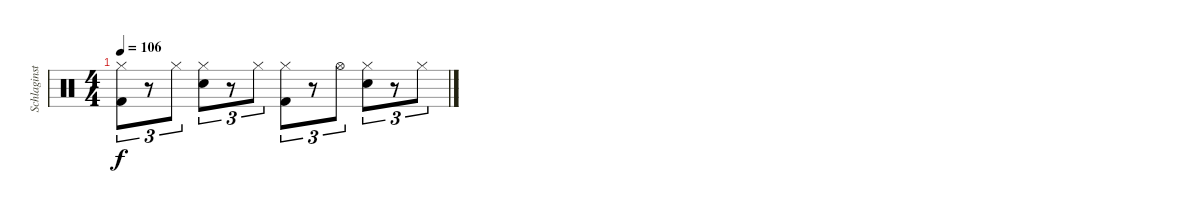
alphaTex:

\track ("Schlaginstrumente - Auswahl" "Schlaginst") {instrument percussion}
\staff {score}
\articulation defaults
\ts (4 4)
\tempo 106
\clef neutral
\ks c
("Hi-Hat (closed)" "Kick (hit) 2").8{tu (3 2) dy f} r.8{tu (3 2)} "Hi-Hat (closed)".8{tu (3 2)} ("Hi-Hat (closed)" "Snare (hit) 2").8{tu (3 2)} r.8{tu (3 2)} "Hi-Hat (closed)".8{tu (3 2)} ("Hi-Hat (closed)" "Kick (hit) 2").8{tu (3 2)} r.8{tu (3 2)} "Hi-Hat (open)".8{tu (3 2)} ("Hi-Hat (closed)" "Snare (hit) 2").8{tu (3 2)} r.8{tu (3 2)} "Hi-Hat (closed)".8{tu (3 2)}
